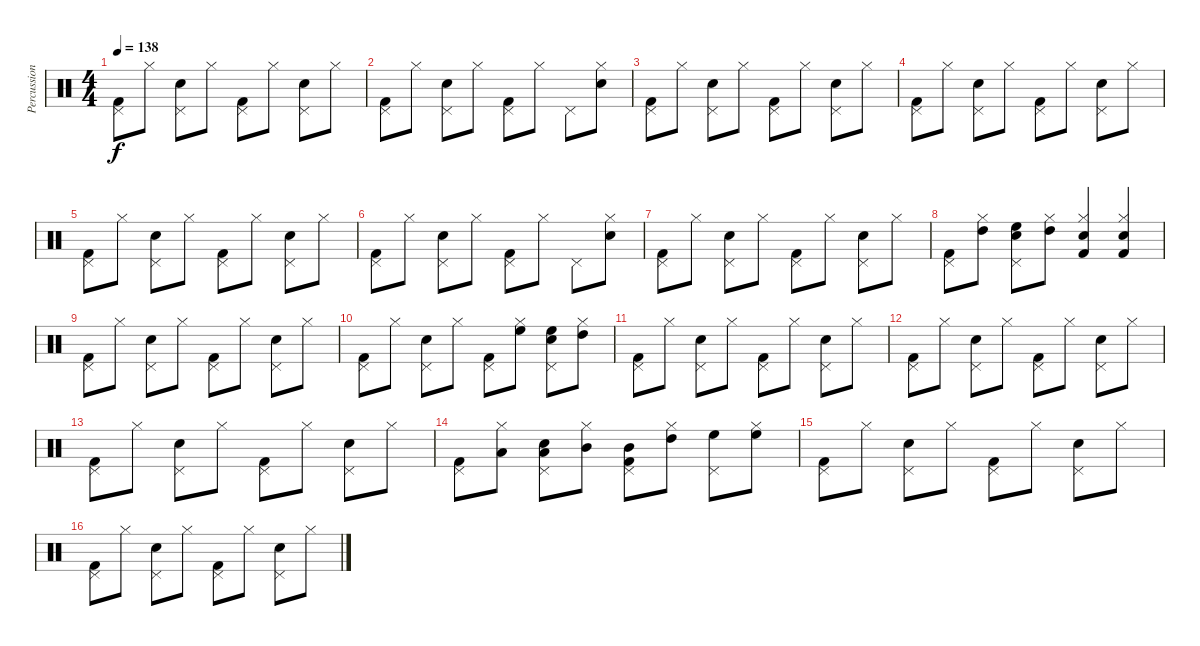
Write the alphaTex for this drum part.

\track ("Percussions" "Percussion") {instrument percussion}
\staff {score}
\articulation defaults
\ts (4 4)
\tempo 138
\clef neutral
\ks c
("Pedal Hi-Hat (hit)" "Kick (hit) 2").8{dy f} "Hi-Hat (closed)".8 ("Pedal Hi-Hat (hit)" "Snare (hit) 2").8 "Hi-Hat (closed)".8 ("Pedal Hi-Hat (hit)" "Kick (hit) 2").8 "Hi-Hat (closed)".8 ("Pedal Hi-Hat (hit)" "Snare (hit) 2").8 "Hi-Hat (closed)".8 |
("Pedal Hi-Hat (hit)" "Kick (hit) 2").8 "Hi-Hat (closed)".8 ("Pedal Hi-Hat (hit)" "Snare (hit) 2").8 "Hi-Hat (closed)".8 ("Pedal Hi-Hat (hit)" "Kick (hit) 2").8 "Hi-Hat (closed)".8 "Pedal Hi-Hat (hit)".8 ("Hi-Hat (closed)" "Snare (hit) 2").8 |
("Pedal Hi-Hat (hit)" "Kick (hit) 2").8 "Hi-Hat (closed)".8 ("Pedal Hi-Hat (hit)" "Snare (hit) 2").8 "Hi-Hat (closed)".8 ("Pedal Hi-Hat (hit)" "Kick (hit) 2").8 "Hi-Hat (closed)".8 ("Pedal Hi-Hat (hit)" "Snare (hit) 2").8 "Hi-Hat (closed)".8 |
("Pedal Hi-Hat (hit)" "Kick (hit) 2").8 "Hi-Hat (closed)".8 ("Pedal Hi-Hat (hit)" "Snare (hit) 2").8 "Hi-Hat (closed)".8 ("Pedal Hi-Hat (hit)" "Kick (hit) 2").8 "Hi-Hat (closed)".8 ("Pedal Hi-Hat (hit)" "Snare (hit) 2").8 "Hi-Hat (closed)".8 |
("Pedal Hi-Hat (hit)" "Kick (hit) 2").8 "Hi-Hat (closed)".8 ("Pedal Hi-Hat (hit)" "Snare (hit) 2").8 "Hi-Hat (closed)".8 ("Pedal Hi-Hat (hit)" "Kick (hit) 2").8 "Hi-Hat (closed)".8 ("Pedal Hi-Hat (hit)" "Snare (hit) 2").8 "Hi-Hat (closed)".8 |
("Pedal Hi-Hat (hit)" "Kick (hit) 2").8 "Hi-Hat (closed)".8 ("Pedal Hi-Hat (hit)" "Snare (hit) 2").8 "Hi-Hat (closed)".8 ("Pedal Hi-Hat (hit)" "Kick (hit) 2").8 "Hi-Hat (closed)".8 "Pedal Hi-Hat (hit)".8 ("Hi-Hat (closed)" "Snare (hit) 2").8 |
("Pedal Hi-Hat (hit)" "Kick (hit) 2").8 "Hi-Hat (closed)".8 ("Pedal Hi-Hat (hit)" "Snare (hit) 2").8 "Hi-Hat (closed)".8 ("Pedal Hi-Hat (hit)" "Kick (hit) 2").8 "Hi-Hat (closed)".8 ("Pedal Hi-Hat (hit)" "Snare (hit) 2").8 "Hi-Hat (closed)".8 |
("Pedal Hi-Hat (hit)" "Kick (hit) 2").8 ("Hi-Hat (closed)" "High Tom (hit)").8 ("Pedal Hi-Hat (hit)" "High Floor Tom (hit)" "Snare (hit) 2").8 ("Hi-Hat (closed)" "High Tom (hit)").8 ("Hi-Hat (closed)" "Snare (hit) 2" "Kick (hit) 2").4 ("Hi-Hat (closed)" "Snare (hit) 2" "Kick (hit) 2").4 |
("Pedal Hi-Hat (hit)" "Kick (hit) 2").8 "Hi-Hat (closed)".8 ("Pedal Hi-Hat (hit)" "Snare (hit) 2").8 "Hi-Hat (closed)".8 ("Pedal Hi-Hat (hit)" "Kick (hit) 2").8 "Hi-Hat (closed)".8 ("Pedal Hi-Hat (hit)" "Snare (hit) 2").8 "Hi-Hat (closed)".8 |
("Pedal Hi-Hat (hit)" "Kick (hit) 2").8 "Hi-Hat (closed)".8 ("Pedal Hi-Hat (hit)" "Snare (hit) 2").8 "Hi-Hat (closed)".8 ("Pedal Hi-Hat (hit)" "Kick (hit) 2").8 ("Hi-Hat (closed)" "High Floor Tom (hit)").8 ("Pedal Hi-Hat (hit)" "High Floor Tom (hit)" "Snare (hit) 2").8 ("Hi-Hat (closed)" "High Tom (hit)").8 |
("Pedal Hi-Hat (hit)" "Kick (hit) 2").8 "Hi-Hat (closed)".8 ("Pedal Hi-Hat (hit)" "Snare (hit) 2").8 "Hi-Hat (closed)".8 ("Pedal Hi-Hat (hit)" "Kick (hit) 2").8 "Hi-Hat (closed)".8 ("Pedal Hi-Hat (hit)" "Snare (hit) 2").8 "Hi-Hat (closed)".8 |
("Pedal Hi-Hat (hit)" "Kick (hit) 2").8 "Hi-Hat (closed)".8 ("Pedal Hi-Hat (hit)" "Snare (hit) 2").8 "Hi-Hat (closed)".8 ("Pedal Hi-Hat (hit)" "Kick (hit) 2").8 "Hi-Hat (closed)".8 ("Pedal Hi-Hat (hit)" "Snare (hit) 2").8 "Hi-Hat (closed)".8 |
("Pedal Hi-Hat (hit)" "Kick (hit) 2").8 "Hi-Hat (closed)".8 ("Pedal Hi-Hat (hit)" "Snare (hit) 2").8 "Hi-Hat (closed)".8 ("Pedal Hi-Hat (hit)" "Kick (hit) 2").8 "Hi-Hat (closed)".8 ("Pedal Hi-Hat (hit)" "Snare (hit) 2").8 "Hi-Hat (closed)".8 |
("Pedal Hi-Hat (hit)" "Kick (hit) 2").8 ("Hi-Hat (closed)" "Low Tom (hit)").8 ("Pedal Hi-Hat (hit)" "Low Tom (hit)" "Snare (hit) 2").8 ("Hi-Hat (closed)" "Mid Tom (hit)").8 ("Pedal Hi-Hat (hit)" "Mid Tom (hit)" "Kick (hit) 2").8 ("Hi-Hat (closed)" "High Tom (hit)").8 ("Pedal Hi-Hat (hit)" "High Floor Tom (hit)").8 ("Hi-Hat (closed)" "High Floor Tom (hit)").8 |
("Pedal Hi-Hat (hit)" "Kick (hit) 2").8 "Hi-Hat (closed)".8 ("Pedal Hi-Hat (hit)" "Snare (hit) 2").8 "Hi-Hat (closed)".8 ("Pedal Hi-Hat (hit)" "Kick (hit) 2").8 "Hi-Hat (closed)".8 ("Pedal Hi-Hat (hit)" "Snare (hit) 2").8 "Hi-Hat (closed)".8 |
("Pedal Hi-Hat (hit)" "Kick (hit) 2").8 "Hi-Hat (closed)".8 ("Pedal Hi-Hat (hit)" "Snare (hit) 2").8 "Hi-Hat (closed)".8 ("Pedal Hi-Hat (hit)" "Kick (hit) 2").8 "Hi-Hat (closed)".8 ("Pedal Hi-Hat (hit)" "Snare (hit) 2").8 "Hi-Hat (closed)".8
